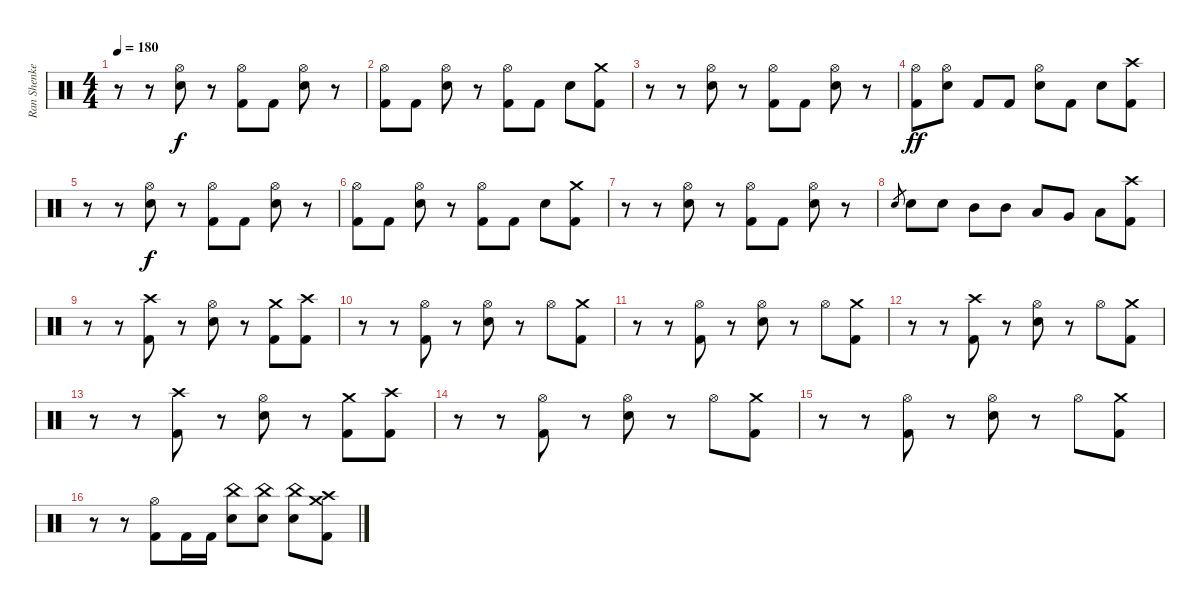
\track ("Ran Shenkerman" "Ran Shenke") {instrument percussion}
\staff {score}
\articulation defaults
\ts (4 4)
\tempo 180
\clef neutral
\ks c
r.8{dy f} r.8 ("Hi-Hat (open)" "Snare (hit) 2").8 r.8 ("Hi-Hat (open)" "Kick (hit) 2").8 "Kick (hit) 2".8 ("Hi-Hat (open)" "Snare (hit) 2").8 r.8 |
("Hi-Hat (open)" "Kick (hit) 2").8 "Kick (hit) 2".8 ("Hi-Hat (open)" "Snare (hit) 2").8 r.8 ("Hi-Hat (open)" "Kick (hit) 2").8 "Kick (hit) 2".8 "Snare (hit) 2".8 ("Crash medium (hit)" "Kick (hit) 2").8 |
r.8 r.8 ("Hi-Hat (open)" "Snare (hit) 2").8 r.8 ("Hi-Hat (open)" "Kick (hit) 2").8 "Kick (hit) 2".8 ("Hi-Hat (open)" "Snare (hit) 2").8 r.8 |
("Hi-Hat (open)" "Kick (hit) 2").8{dy ff} ("Hi-Hat (open)" "Snare (hit) 2").8 "Kick (hit) 2".8 "Kick (hit) 2".8 ("Hi-Hat (open)" "Snare (hit) 2").8 "Kick (hit) 2".8 "Snare (hit) 2".8 ("Crash high (hit)" "Kick (hit) 2").8 |
r.8 r.8 ("Hi-Hat (open)" "Snare (hit) 2").8{dy f} r.8 ("Hi-Hat (open)" "Kick (hit) 2").8 "Kick (hit) 2".8 ("Hi-Hat (open)" "Snare (hit) 2").8 r.8 |
("Hi-Hat (open)" "Kick (hit) 2").8 "Kick (hit) 2".8 ("Hi-Hat (open)" "Snare (hit) 2").8 r.8 ("Hi-Hat (open)" "Kick (hit) 2").8 "Kick (hit) 2".8 "Snare (hit) 2".8 ("Crash medium (hit)" "Kick (hit) 2").8 |
r.8 r.8 ("Hi-Hat (open)" "Snare (hit) 2").8 r.8 ("Hi-Hat (open)" "Kick (hit) 2").8 "Kick (hit) 2".8 ("Hi-Hat (open)" "Snare (hit) 2").8 r.8 |
"Snare (hit) 2".8{gr} "Snare (hit) 2".8 "Snare (hit) 2".8 "Mid Tom (hit)".8 "Mid Tom (hit)".8 "Low Tom (hit)".8 "Very Low Tom (hit)".8 "Low Floor Tom (hit)".8 ("Crash high (hit)" "Kick (hit) 2").8 |
r.8 r.8 ("Crash high (hit)" "Kick (hit) 2").8 r.8 ("Hi-Hat (open)" "Snare (hit) 2").8 r.8 ("Crash medium (hit)" "Kick (hit) 2").8 ("Crash high (hit)" "Kick (hit) 2").8 |
r.8 r.8 ("Hi-Hat (open)" "Kick (hit) 2").8 r.8 ("Hi-Hat (open)" "Snare (hit) 2").8 r.8 "Hi-Hat (open)".8 ("Crash medium (hit)" "Kick (hit) 2").8 |
r.8 r.8 ("Hi-Hat (open)" "Kick (hit) 2").8 r.8 ("Hi-Hat (open)" "Snare (hit) 2").8 r.8 "Hi-Hat (open)".8 ("Crash medium (hit)" "Kick (hit) 2").8 |
r.8 r.8 ("Crash high (hit)" "Kick (hit) 2").8 r.8 ("Hi-Hat (open)" "Snare (hit) 2").8 r.8 "Hi-Hat (open)".8 ("Crash medium (hit)" "Kick (hit) 2").8 |
r.8 r.8 ("Crash high (hit)" "Kick (hit) 2").8 r.8 ("Hi-Hat (open)" "Snare (hit) 2").8 r.8 ("Crash medium (hit)" "Kick (hit) 2").8 ("Crash high (hit)" "Kick (hit) 2").8 |
r.8 r.8 ("Hi-Hat (open)" "Kick (hit) 2").8 r.8 ("Hi-Hat (open)" "Snare (hit) 2").8 r.8 "Hi-Hat (open)".8 ("Crash medium (hit)" "Kick (hit) 2").8 |
r.8 r.8 ("Hi-Hat (open)" "Kick (hit) 2").8 r.8 ("Hi-Hat (open)" "Snare (hit) 2").8 r.8 "Hi-Hat (open)".8 ("Crash medium (hit)" "Kick (hit) 2").8 |
r.8 r.8 ("Hi-Hat (open)" "Kick (hit) 2").8 "Kick (hit) 2".16 "Kick (hit) 2".16 ("China (hit)" "Snare (hit) 2").8 ("China (hit)" "Snare (hit) 2").8 ("China (hit)" "Snare (hit) 2").8 ("Crash high (hit)" "Crash medium (hit)" "Kick (hit) 2").8
